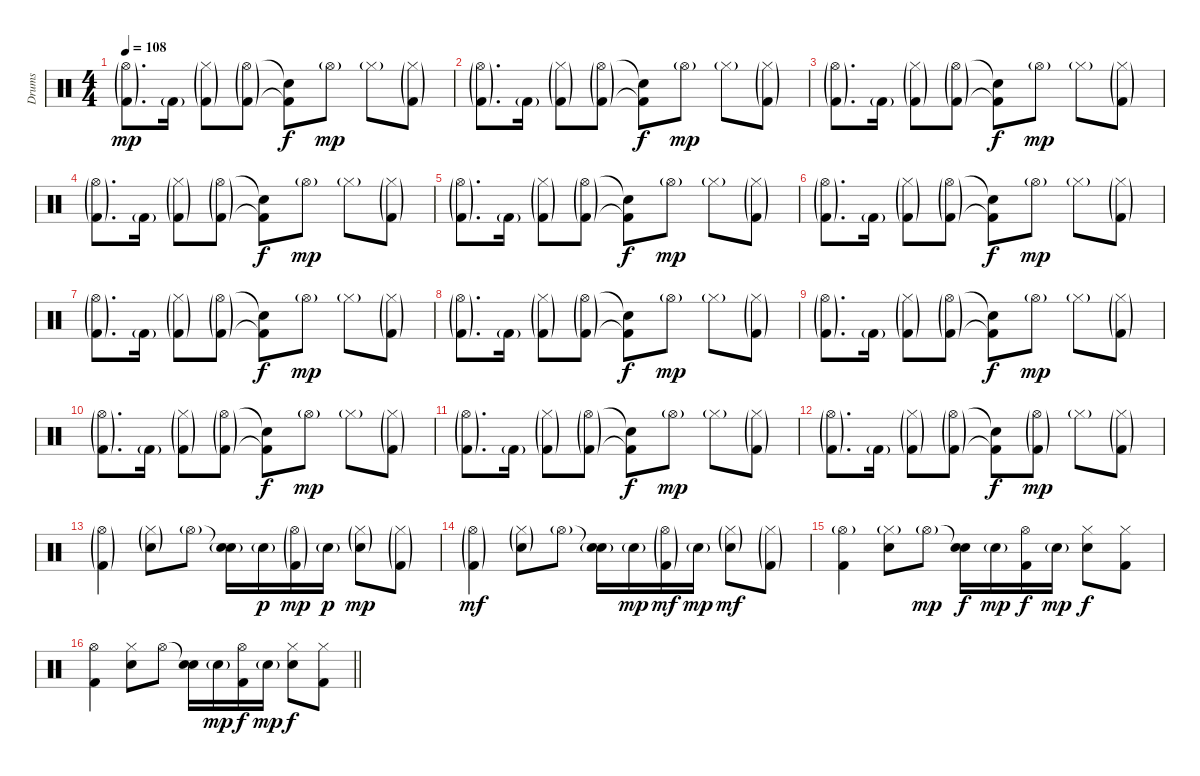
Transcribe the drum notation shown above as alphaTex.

\track ("Drums" "Drums") {instrument percussion}
\staff {score}
\articulation defaults
\ts (4 4)
\tempo 108
\clef neutral
\ks c
("Hi-Hat (open)"{g} "Kick (hit) 2"{g}).8{d dy mp} "Kick (hit) 2"{g}.16 ("Hi-Hat (closed)"{g} "Kick (hit) 2"{g}).8 ("Hi-Hat (open)"{g} "Kick (hit) 2"{g}).8 ("Snare (hit)"{t} "Kick (hit) 2"{t}).8{dy f} "Hi-Hat (open)"{g}.8{dy mp} "Hi-Hat (closed)"{g}.8 ("Hi-Hat (closed)"{g} "Kick (hit) 2"{g}).8 |
("Hi-Hat (open)"{g} "Kick (hit) 2"{g}).8{d} "Kick (hit) 2"{g}.16 ("Hi-Hat (closed)"{g} "Kick (hit) 2"{g}).8 ("Hi-Hat (open)"{g} "Kick (hit) 2"{g}).8 ("Snare (hit)"{t} "Kick (hit) 2"{t}).8{dy f} "Hi-Hat (open)"{g}.8{dy mp} "Hi-Hat (closed)"{g}.8 ("Hi-Hat (closed)"{g} "Kick (hit) 2"{g}).8 |
("Hi-Hat (open)"{g} "Kick (hit) 2"{g}).8{d} "Kick (hit) 2"{g}.16 ("Hi-Hat (closed)"{g} "Kick (hit) 2"{g}).8 ("Hi-Hat (open)"{g} "Kick (hit) 2"{g}).8 ("Snare (hit)"{t} "Kick (hit) 2"{t}).8{dy f} "Hi-Hat (open)"{g}.8{dy mp} "Hi-Hat (closed)"{g}.8 ("Hi-Hat (closed)"{g} "Kick (hit) 2"{g}).8 |
("Hi-Hat (open)"{g} "Kick (hit) 2"{g}).8{d} "Kick (hit) 2"{g}.16 ("Hi-Hat (closed)"{g} "Kick (hit) 2"{g}).8 ("Hi-Hat (open)"{g} "Kick (hit) 2"{g}).8 ("Snare (hit)"{t} "Kick (hit) 2"{t}).8{dy f} "Hi-Hat (open)"{g}.8{dy mp} "Hi-Hat (closed)"{g}.8 ("Hi-Hat (closed)"{g} "Kick (hit) 2"{g}).8 |
("Hi-Hat (open)"{g} "Kick (hit) 2"{g}).8{d} "Kick (hit) 2"{g}.16 ("Hi-Hat (closed)"{g} "Kick (hit) 2"{g}).8 ("Hi-Hat (open)"{g} "Kick (hit) 2"{g}).8 ("Snare (hit)"{t} "Kick (hit) 2"{t}).8{dy f} "Hi-Hat (open)"{g}.8{dy mp} "Hi-Hat (closed)"{g}.8 ("Hi-Hat (closed)"{g} "Kick (hit) 2"{g}).8 |
("Hi-Hat (open)"{g} "Kick (hit) 2"{g}).8{d} "Kick (hit) 2"{g}.16 ("Hi-Hat (closed)"{g} "Kick (hit) 2"{g}).8 ("Hi-Hat (open)"{g} "Kick (hit) 2"{g}).8 ("Snare (hit)"{t} "Kick (hit) 2"{t}).8{dy f} "Hi-Hat (open)"{g}.8{dy mp} "Hi-Hat (closed)"{g}.8 ("Hi-Hat (closed)"{g} "Kick (hit) 2"{g}).8 |
("Hi-Hat (open)"{g} "Kick (hit) 2"{g}).8{d} "Kick (hit) 2"{g}.16 ("Hi-Hat (closed)"{g} "Kick (hit) 2"{g}).8 ("Hi-Hat (open)"{g} "Kick (hit) 2"{g}).8 ("Snare (hit)"{t} "Kick (hit) 2"{t}).8{dy f} "Hi-Hat (open)"{g}.8{dy mp} "Hi-Hat (closed)"{g}.8 ("Hi-Hat (closed)"{g} "Kick (hit) 2"{g}).8 |
("Hi-Hat (open)"{g} "Kick (hit) 2"{g}).8{d} "Kick (hit) 2"{g}.16 ("Hi-Hat (closed)"{g} "Kick (hit) 2"{g}).8 ("Hi-Hat (open)"{g} "Kick (hit) 2"{g}).8 ("Snare (hit)"{t} "Kick (hit) 2"{t}).8{dy f} "Hi-Hat (open)"{g}.8{dy mp} "Hi-Hat (closed)"{g}.8 ("Hi-Hat (closed)"{g} "Kick (hit) 2"{g}).8 |
("Hi-Hat (open)"{g} "Kick (hit) 2"{g}).8{d} "Kick (hit) 2"{g}.16 ("Hi-Hat (closed)"{g} "Kick (hit) 2"{g}).8 ("Hi-Hat (open)"{g} "Kick (hit) 2"{g}).8 ("Snare (hit)"{t} "Kick (hit) 2"{t}).8{dy f} "Hi-Hat (open)"{g}.8{dy mp} "Hi-Hat (closed)"{g}.8 ("Hi-Hat (closed)"{g} "Kick (hit) 2"{g}).8 |
("Hi-Hat (open)"{g} "Kick (hit) 2"{g}).8{d} "Kick (hit) 2"{g}.16 ("Hi-Hat (closed)"{g} "Kick (hit) 2"{g}).8 ("Hi-Hat (open)"{g} "Kick (hit) 2"{g}).8 ("Snare (hit)"{t} "Kick (hit) 2"{t}).8{dy f} "Hi-Hat (open)"{g}.8{dy mp} "Hi-Hat (closed)"{g}.8 ("Hi-Hat (closed)"{g} "Kick (hit) 2"{g}).8 |
("Hi-Hat (open)"{g} "Kick (hit) 2"{g}).8{d} "Kick (hit) 2"{g}.16 ("Hi-Hat (closed)"{g} "Kick (hit) 2"{g}).8 ("Hi-Hat (open)"{g} "Kick (hit) 2"{g}).8 ("Snare (hit)"{t} "Kick (hit) 2"{t}).8{dy f} "Hi-Hat (open)"{g}.8{dy mp} "Hi-Hat (closed)"{g}.8 ("Hi-Hat (closed)"{g} "Kick (hit) 2"{g}).8 |
("Hi-Hat (open)"{g} "Kick (hit) 2"{g}).8{d} "Kick (hit) 2"{g}.16 ("Hi-Hat (closed)"{g} "Kick (hit) 2"{g}).8 ("Hi-Hat (open)"{g} "Kick (hit) 2"{g}).8 ("Snare (hit)"{t} "Kick (hit) 2"{t}).8{dy f} ("Hi-Hat (open)"{g} "Kick (hit) 2"{g}).8{dy mp} "Hi-Hat (closed)"{g}.8 ("Hi-Hat (closed)"{g} "Kick (hit) 2"{g}).8 |
("Hi-Hat (open)"{g} "Kick (hit) 2"{g}).4 ("Hi-Hat (closed)"{g} "Electric Snare (hit)"{g}).8 "Hi-Hat (open)"{g}.8 ("Snare (hit)"{t} "Electric Snare (hit)"{g}).16 "Electric Snare (hit)"{g}.16{dy p} ("Hi-Hat (open)"{g} "Kick (hit) 2"{g}).16{dy mp} "Electric Snare (hit)"{g}.16{dy p} ("Hi-Hat (closed)"{g} "Electric Snare (hit)"{g}).8{dy mp} ("Hi-Hat (closed)"{g} "Kick (hit) 2"{g}).8 |
("Hi-Hat (open)"{g} "Kick (hit) 2"{g}).4{dy mf} ("Hi-Hat (closed)"{g} "Electric Snare (hit)"{g}).8 "Hi-Hat (open)"{g}.8 ("Snare (hit)"{t} "Electric Snare (hit)"{g}).16 "Electric Snare (hit)"{g}.16{dy mp} ("Hi-Hat (open)"{g} "Kick (hit) 2"{g}).16{dy mf} "Electric Snare (hit)"{g}.16{dy mp} ("Hi-Hat (closed)"{g} "Electric Snare (hit)"{g}).8{dy mf} ("Hi-Hat (closed)"{g} "Kick (hit) 2"{g}).8 |
("Hi-Hat (open)"{g} "Kick (hit) 2").4 ("Hi-Hat (closed)"{g} "Electric Snare (hit)").8 "Hi-Hat (open)"{g}.8{dy mp} ("Snare (hit)"{t} "Electric Snare (hit)").16{dy f} "Electric Snare (hit)"{g}.16{dy mp} ("Hi-Hat (open)" "Kick (hit) 2").16{dy f} "Electric Snare (hit)"{g}.16{dy mp} ("Hi-Hat (closed)" "Electric Snare (hit)").8{dy f} ("Hi-Hat (closed)" "Kick (hit) 2").8 |
\barLineRight lightlight
("Hi-Hat (open)" "Kick (hit) 2").4 ("Hi-Hat (closed)" "Electric Snare (hit)").8 "Hi-Hat (open)".8 ("Snare (hit)"{t} "Electric Snare (hit)").16 "Electric Snare (hit)"{g}.16{dy mp} ("Hi-Hat (open)" "Kick (hit) 2").16{dy f} "Electric Snare (hit)"{g}.16{dy mp} ("Hi-Hat (closed)" "Electric Snare (hit)").8{dy f} ("Hi-Hat (closed)" "Kick (hit) 2").8
